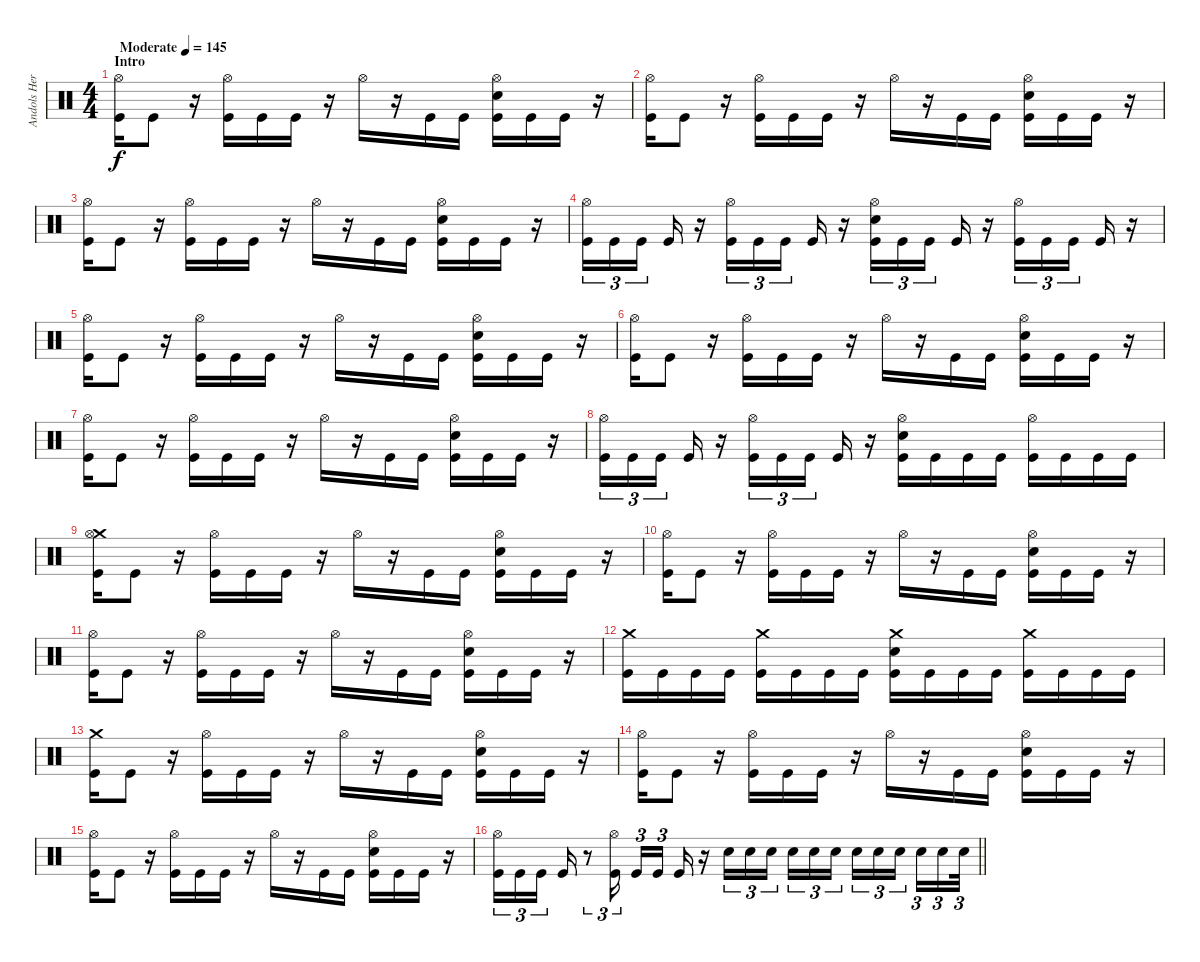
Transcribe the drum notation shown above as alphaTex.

\track ("Andols Herrick" "Andols Her") {instrument percussion}
\staff
\articulation defaults
\ts (4 4)
\section ("" "Intro")
\tempo (145 "Moderate")
\clef neutral
\ks c
("Hi-Hat (open)" "Kick (hit)").16{dy f} "Kick (hit)".8 r.16 ("Hi-Hat (open)" "Kick (hit)").16 "Kick (hit)".16 "Kick (hit)".16 r.16 "Hi-Hat (open)".16 r.16 "Kick (hit)".16 "Kick (hit)".16 ("Hi-Hat (open)" "Electric Snare (hit)" "Kick (hit)").16 "Kick (hit)".16 "Kick (hit)".16 r.16 |
("Hi-Hat (open)" "Kick (hit)").16 "Kick (hit)".8 r.16 ("Hi-Hat (open)" "Kick (hit)").16 "Kick (hit)".16 "Kick (hit)".16 r.16 "Hi-Hat (open)".16 r.16 "Kick (hit)".16 "Kick (hit)".16 ("Hi-Hat (open)" "Electric Snare (hit)" "Kick (hit)").16 "Kick (hit)".16 "Kick (hit)".16 r.16 |
("Hi-Hat (open)" "Kick (hit)").16 "Kick (hit)".8 r.16 ("Hi-Hat (open)" "Kick (hit)").16 "Kick (hit)".16 "Kick (hit)".16 r.16 "Hi-Hat (open)".16 r.16 "Kick (hit)".16 "Kick (hit)".16 ("Hi-Hat (open)" "Electric Snare (hit)" "Kick (hit)").16 "Kick (hit)".16 "Kick (hit)".16 r.16 |
("Hi-Hat (open)" "Kick (hit)").16{tu (3 2)} "Kick (hit)".16{tu (3 2)} "Kick (hit)".16{tu (3 2) beam splitsecondary} "Kick (hit)".16 r.16 ("Hi-Hat (open)" "Kick (hit)").16{tu (3 2)} "Kick (hit)".16{tu (3 2)} "Kick (hit)".16{tu (3 2) beam splitsecondary} "Kick (hit)".16 r.16 ("Hi-Hat (open)" "Electric Snare (hit)" "Kick (hit)").16{tu (3 2)} "Kick (hit)".16{tu (3 2)} "Kick (hit)".16{tu (3 2) beam splitsecondary} "Kick (hit)".16 r.16 ("Hi-Hat (open)" "Kick (hit)").16{tu (3 2)} "Kick (hit)".16{tu (3 2)} "Kick (hit)".16{tu (3 2) beam splitsecondary} "Kick (hit)".16 r.16 |
("Hi-Hat (open)" "Kick (hit)").16 "Kick (hit)".8 r.16 ("Hi-Hat (open)" "Kick (hit)").16 "Kick (hit)".16 "Kick (hit)".16 r.16 "Hi-Hat (open)".16 r.16 "Kick (hit)".16 "Kick (hit)".16 ("Hi-Hat (open)" "Electric Snare (hit)" "Kick (hit)").16 "Kick (hit)".16 "Kick (hit)".16 r.16 |
("Hi-Hat (open)" "Kick (hit)").16 "Kick (hit)".8 r.16 ("Hi-Hat (open)" "Kick (hit)").16 "Kick (hit)".16 "Kick (hit)".16 r.16 "Hi-Hat (open)".16 r.16 "Kick (hit)".16 "Kick (hit)".16 ("Hi-Hat (open)" "Electric Snare (hit)" "Kick (hit)").16 "Kick (hit)".16 "Kick (hit)".16 r.16 |
("Hi-Hat (open)" "Kick (hit)").16 "Kick (hit)".8 r.16 ("Hi-Hat (open)" "Kick (hit)").16 "Kick (hit)".16 "Kick (hit)".16 r.16 "Hi-Hat (open)".16 r.16 "Kick (hit)".16 "Kick (hit)".16 ("Hi-Hat (open)" "Electric Snare (hit)" "Kick (hit)").16 "Kick (hit)".16 "Kick (hit)".16 r.16 |
("Hi-Hat (open)" "Kick (hit)").16{tu (3 2)} "Kick (hit)".16{tu (3 2)} "Kick (hit)".16{tu (3 2) beam splitsecondary} "Kick (hit)".16 r.16 ("Hi-Hat (open)" "Kick (hit)").16{tu (3 2)} "Kick (hit)".16{tu (3 2)} "Kick (hit)".16{tu (3 2) beam splitsecondary} "Kick (hit)".16 r.16 ("Hi-Hat (open)" "Electric Snare (hit)" "Kick (hit)").16 "Kick (hit)".16 "Kick (hit)".16 "Kick (hit)".16 ("Hi-Hat (open)" "Kick (hit)").16 "Kick (hit)".16 "Kick (hit)".16 "Kick (hit)".16 |
("Crash medium (hit)" "Hi-Hat (open)" "Kick (hit)").16 "Kick (hit)".8 r.16 ("Hi-Hat (open)" "Kick (hit)").16 "Kick (hit)".16 "Kick (hit)".16 r.16 "Hi-Hat (open)".16 r.16 "Kick (hit)".16 "Kick (hit)".16 ("Hi-Hat (open)" "Electric Snare (hit)" "Kick (hit)").16 "Kick (hit)".16 "Kick (hit)".16 r.16 |
("Hi-Hat (open)" "Kick (hit)").16 "Kick (hit)".8 r.16 ("Hi-Hat (open)" "Kick (hit)").16 "Kick (hit)".16 "Kick (hit)".16 r.16 "Hi-Hat (open)".16 r.16 "Kick (hit)".16 "Kick (hit)".16 ("Hi-Hat (open)" "Electric Snare (hit)" "Kick (hit)").16 "Kick (hit)".16 "Kick (hit)".16 r.16 |
("Hi-Hat (open)" "Kick (hit)").16 "Kick (hit)".8 r.16 ("Hi-Hat (open)" "Kick (hit)").16 "Kick (hit)".16 "Kick (hit)".16 r.16 "Hi-Hat (open)".16 r.16 "Kick (hit)".16 "Kick (hit)".16 ("Hi-Hat (open)" "Electric Snare (hit)" "Kick (hit)").16 "Kick (hit)".16 "Kick (hit)".16 r.16 |
("Crash medium (hit)" "Kick (hit)").16 "Kick (hit)".16 "Kick (hit)".16 "Kick (hit)".16 ("Crash medium (hit)" "Kick (hit)").16 "Kick (hit)".16 "Kick (hit)".16 "Kick (hit)".16 ("Crash medium (hit)" "Electric Snare (hit)" "Kick (hit)").16 "Kick (hit)".16 "Kick (hit)".16 "Kick (hit)".16 ("Crash medium (hit)" "Kick (hit)").16 "Kick (hit)".16 "Kick (hit)".16 "Kick (hit)".16 |
("Crash medium (hit)" "Kick (hit)").16 "Kick (hit)".8 r.16 ("Hi-Hat (open)" "Kick (hit)").16 "Kick (hit)".16 "Kick (hit)".16 r.16 "Hi-Hat (open)".16 r.16 "Kick (hit)".16 "Kick (hit)".16 ("Hi-Hat (open)" "Electric Snare (hit)" "Kick (hit)").16 "Kick (hit)".16 "Kick (hit)".16 r.16 |
("Hi-Hat (open)" "Kick (hit)").16 "Kick (hit)".8 r.16 ("Hi-Hat (open)" "Kick (hit)").16 "Kick (hit)".16 "Kick (hit)".16 r.16 "Hi-Hat (open)".16 r.16 "Kick (hit)".16 "Kick (hit)".16 ("Hi-Hat (open)" "Electric Snare (hit)" "Kick (hit)").16 "Kick (hit)".16 "Kick (hit)".16 r.16 |
("Hi-Hat (open)" "Kick (hit)").16 "Kick (hit)".8 r.16 ("Hi-Hat (open)" "Kick (hit)").16 "Kick (hit)".16 "Kick (hit)".16 r.16 "Hi-Hat (open)".16 r.16 "Kick (hit)".16 "Kick (hit)".16 ("Hi-Hat (open)" "Electric Snare (hit)" "Kick (hit)").16 "Kick (hit)".16 "Kick (hit)".16 r.16 |
\barLineRight lightlight
("Hi-Hat (open)" "Kick (hit)").16{tu (3 2)} "Kick (hit)".16{tu (3 2)} "Kick (hit)".16{tu (3 2) beam splitsecondary} "Kick (hit)".16 r.8{tu (3 2)} ("Hi-Hat (open)" "Kick (hit)").16{tu (3 2) beam splitsecondary} "Kick (hit)".16{tu (3 2)} "Kick (hit)".16{tu (3 2) beam splitsecondary} "Kick (hit)".16 r.16 "Electric Snare (hit)".16{tu (3 2)} "Electric Snare (hit)".16{tu (3 2)} "Electric Snare (hit)".16{tu (3 2) beam splitsecondary} "Electric Snare (hit)".16{tu (3 2)} "Electric Snare (hit)".16{tu (3 2)} "Electric Snare (hit)".16{tu (3 2)} "Electric Snare (hit)".16{tu (3 2)} "Electric Snare (hit)".16{tu (3 2)} "Electric Snare (hit)".16{tu (3 2) beam splitsecondary} "Electric Snare (hit)".16{tu (3 2)} "Electric Snare (hit)".16{tu (3 2)} "Electric Snare (hit)".32{tu (3 2)}
